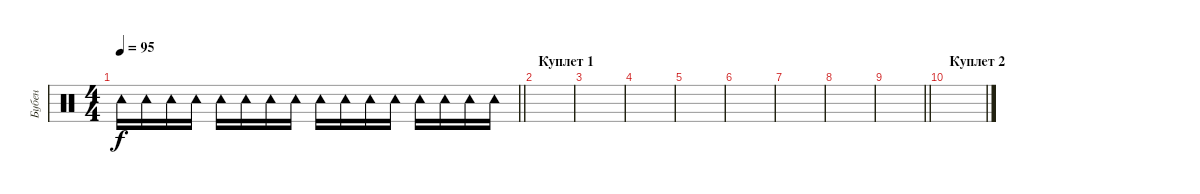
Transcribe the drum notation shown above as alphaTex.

\track ("Бубен" "Бубен") {instrument percussion}
\staff {score}
\articulation defaults
\ts (4 4)
\tempo 95
\clef neutral
\barLineRight lightlight
\ks c "Tambourine (hit)".16{dy f} "Tambourine (hit)".16 "Tambourine (hit)".16 "Tambourine (hit)".16 "Tambourine (hit)".16 "Tambourine (hit)".16 "Tambourine (hit)".16 "Tambourine (hit)".16 "Tambourine (hit)".16 "Tambourine (hit)".16 "Tambourine (hit)".16 "Tambourine (hit)".16 "Tambourine (hit)".16 "Tambourine (hit)".16 "Tambourine (hit)".16 "Tambourine (hit)".16
|
\section ("" "Куплет 1")
|
|
|
|
|
|
|
\barLineRight lightlight
|
\section ("" "Куплет 2")
